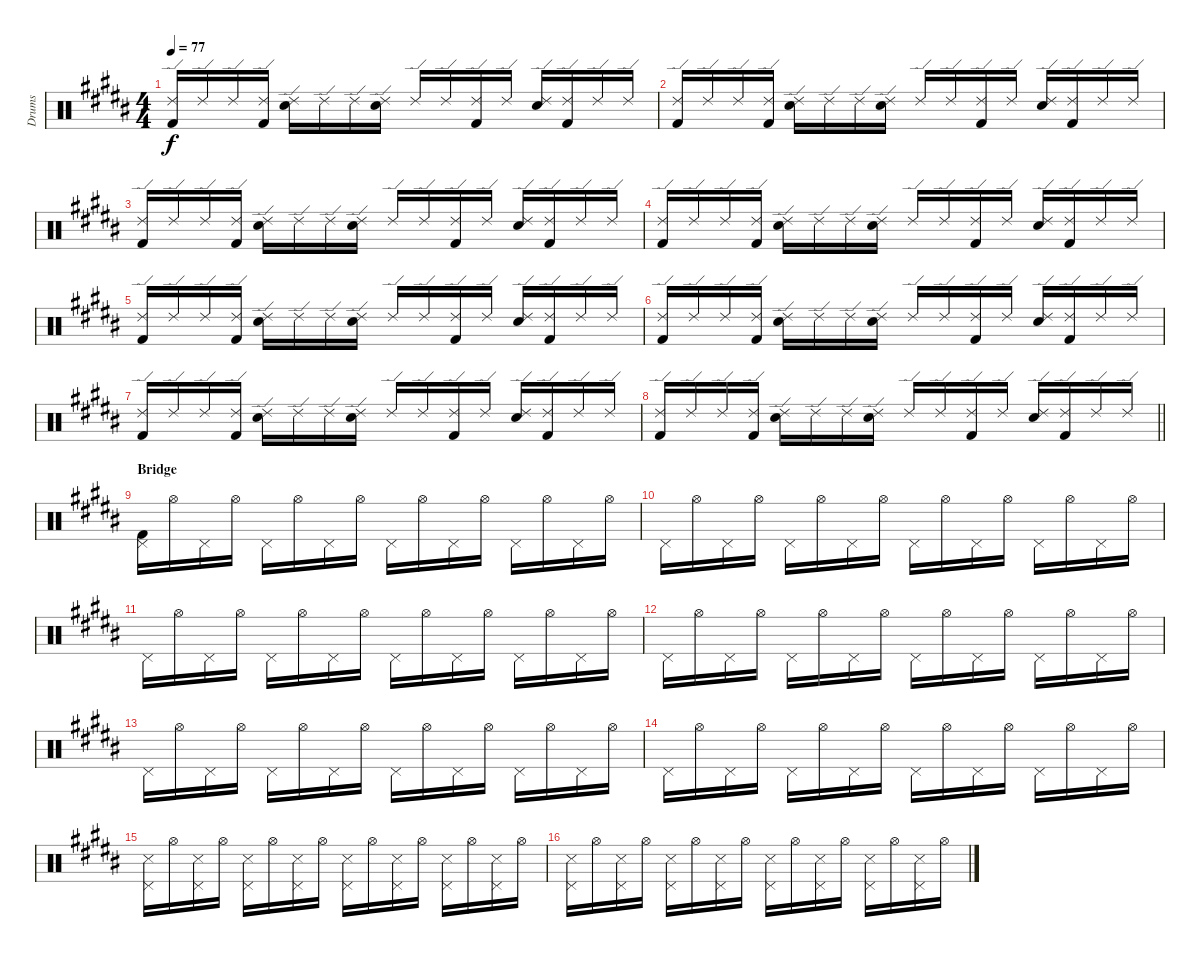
\track ("Drums" "Drums") {instrument percussion}
\staff {score}
\articulation defaults
\ts (4 4)
\tempo 77
\clef neutral
\ks g#minor
("Kick (hit) 2" "Ride (edge) 2").16{dy f} "Ride (edge) 2".16 "Ride (edge) 2".16 ("Kick (hit) 2" "Ride (edge) 2").16 ("Ride (edge) 2" "Snare (hit) 2").16 "Ride (edge) 2".16 "Ride (edge) 2".16 ("Ride (edge) 2" "Snare (hit) 2").16 "Ride (edge) 2".16 "Ride (edge) 2".16 ("Kick (hit) 2" "Ride (edge) 2").16 "Ride (edge) 2".16 ("Ride (edge) 2" "Snare (hit) 2").16 ("Kick (hit) 2" "Ride (edge) 2").16 "Ride (edge) 2".16 "Ride (edge) 2".16 |
("Kick (hit) 2" "Ride (edge) 2").16 "Ride (edge) 2".16 "Ride (edge) 2".16 ("Kick (hit) 2" "Ride (edge) 2").16 ("Ride (edge) 2" "Snare (hit) 2").16 "Ride (edge) 2".16 "Ride (edge) 2".16 ("Ride (edge) 2" "Snare (hit) 2").16 "Ride (edge) 2".16 "Ride (edge) 2".16 ("Kick (hit) 2" "Ride (edge) 2").16 "Ride (edge) 2".16 ("Ride (edge) 2" "Snare (hit) 2").16 ("Kick (hit) 2" "Ride (edge) 2").16 "Ride (edge) 2".16 "Ride (edge) 2".16 |
("Kick (hit) 2" "Ride (edge) 2").16 "Ride (edge) 2".16 "Ride (edge) 2".16 ("Kick (hit) 2" "Ride (edge) 2").16 ("Ride (edge) 2" "Snare (hit) 2").16 "Ride (edge) 2".16 "Ride (edge) 2".16 ("Ride (edge) 2" "Snare (hit) 2").16 "Ride (edge) 2".16 "Ride (edge) 2".16 ("Kick (hit) 2" "Ride (edge) 2").16 "Ride (edge) 2".16 ("Ride (edge) 2" "Snare (hit) 2").16 ("Kick (hit) 2" "Ride (edge) 2").16 "Ride (edge) 2".16 "Ride (edge) 2".16 |
("Kick (hit) 2" "Ride (edge) 2").16 "Ride (edge) 2".16 "Ride (edge) 2".16 ("Kick (hit) 2" "Ride (edge) 2").16 ("Ride (edge) 2" "Snare (hit) 2").16 "Ride (edge) 2".16 "Ride (edge) 2".16 ("Ride (edge) 2" "Snare (hit) 2").16 "Ride (edge) 2".16 "Ride (edge) 2".16 ("Kick (hit) 2" "Ride (edge) 2").16 "Ride (edge) 2".16 ("Ride (edge) 2" "Snare (hit) 2").16 ("Kick (hit) 2" "Ride (edge) 2").16 "Ride (edge) 2".16 "Ride (edge) 2".16 |
("Kick (hit) 2" "Ride (edge) 2").16 "Ride (edge) 2".16 "Ride (edge) 2".16 ("Kick (hit) 2" "Ride (edge) 2").16 ("Ride (edge) 2" "Snare (hit) 2").16 "Ride (edge) 2".16 "Ride (edge) 2".16 ("Ride (edge) 2" "Snare (hit) 2").16 "Ride (edge) 2".16 "Ride (edge) 2".16 ("Kick (hit) 2" "Ride (edge) 2").16 "Ride (edge) 2".16 ("Ride (edge) 2" "Snare (hit) 2").16 ("Kick (hit) 2" "Ride (edge) 2").16 "Ride (edge) 2".16 "Ride (edge) 2".16 |
("Kick (hit) 2" "Ride (edge) 2").16 "Ride (edge) 2".16 "Ride (edge) 2".16 ("Kick (hit) 2" "Ride (edge) 2").16 ("Ride (edge) 2" "Snare (hit) 2").16 "Ride (edge) 2".16 "Ride (edge) 2".16 ("Ride (edge) 2" "Snare (hit) 2").16 "Ride (edge) 2".16 "Ride (edge) 2".16 ("Kick (hit) 2" "Ride (edge) 2").16 "Ride (edge) 2".16 ("Ride (edge) 2" "Snare (hit) 2").16 ("Kick (hit) 2" "Ride (edge) 2").16 "Ride (edge) 2".16 "Ride (edge) 2".16 |
("Kick (hit) 2" "Ride (edge) 2").16 "Ride (edge) 2".16 "Ride (edge) 2".16 ("Kick (hit) 2" "Ride (edge) 2").16 ("Ride (edge) 2" "Snare (hit) 2").16 "Ride (edge) 2".16 "Ride (edge) 2".16 ("Ride (edge) 2" "Snare (hit) 2").16 "Ride (edge) 2".16 "Ride (edge) 2".16 ("Kick (hit) 2" "Ride (edge) 2").16 "Ride (edge) 2".16 ("Ride (edge) 2" "Snare (hit) 2").16 ("Kick (hit) 2" "Ride (edge) 2").16 "Ride (edge) 2".16 "Ride (edge) 2".16 |
\barLineRight lightlight
("Kick (hit) 2" "Ride (edge) 2").16 "Ride (edge) 2".16 "Ride (edge) 2".16 ("Kick (hit) 2" "Ride (edge) 2").16 ("Ride (edge) 2" "Snare (hit) 2").16 "Ride (edge) 2".16 "Ride (edge) 2".16 ("Ride (edge) 2" "Snare (hit) 2").16 "Ride (edge) 2".16 "Ride (edge) 2".16 ("Kick (hit) 2" "Ride (edge) 2").16 "Ride (edge) 2".16 ("Ride (edge) 2" "Snare (hit) 2").16 ("Kick (hit) 2" "Ride (edge) 2").16 "Ride (edge) 2".16 "Ride (edge) 2".16 |
\section ("" "Bridge")
("Kick (hit) 2" "Pedal Hi-Hat (hit)").16 "Hi-Hat (open)".16 "Pedal Hi-Hat (hit)".16 "Hi-Hat (open)".16 "Pedal Hi-Hat (hit)".16 "Hi-Hat (open)".16 "Pedal Hi-Hat (hit)".16 "Hi-Hat (open)".16 "Pedal Hi-Hat (hit)".16 "Hi-Hat (open)".16 "Pedal Hi-Hat (hit)".16 "Hi-Hat (open)".16 "Pedal Hi-Hat (hit)".16 "Hi-Hat (open)".16 "Pedal Hi-Hat (hit)".16 "Hi-Hat (open)".16 |
"Pedal Hi-Hat (hit)".16 "Hi-Hat (open)".16 "Pedal Hi-Hat (hit)".16 "Hi-Hat (open)".16 "Pedal Hi-Hat (hit)".16 "Hi-Hat (open)".16 "Pedal Hi-Hat (hit)".16 "Hi-Hat (open)".16 "Pedal Hi-Hat (hit)".16 "Hi-Hat (open)".16 "Pedal Hi-Hat (hit)".16 "Hi-Hat (open)".16 "Pedal Hi-Hat (hit)".16 "Hi-Hat (open)".16 "Pedal Hi-Hat (hit)".16 "Hi-Hat (open)".16 |
"Pedal Hi-Hat (hit)".16 "Hi-Hat (open)".16 "Pedal Hi-Hat (hit)".16 "Hi-Hat (open)".16 "Pedal Hi-Hat (hit)".16 "Hi-Hat (open)".16 "Pedal Hi-Hat (hit)".16 "Hi-Hat (open)".16 "Pedal Hi-Hat (hit)".16 "Hi-Hat (open)".16 "Pedal Hi-Hat (hit)".16 "Hi-Hat (open)".16 "Pedal Hi-Hat (hit)".16 "Hi-Hat (open)".16 "Pedal Hi-Hat (hit)".16 "Hi-Hat (open)".16 |
"Pedal Hi-Hat (hit)".16 "Hi-Hat (open)".16 "Pedal Hi-Hat (hit)".16 "Hi-Hat (open)".16 "Pedal Hi-Hat (hit)".16 "Hi-Hat (open)".16 "Pedal Hi-Hat (hit)".16 "Hi-Hat (open)".16 "Pedal Hi-Hat (hit)".16 "Hi-Hat (open)".16 "Pedal Hi-Hat (hit)".16 "Hi-Hat (open)".16 "Pedal Hi-Hat (hit)".16 "Hi-Hat (open)".16 "Pedal Hi-Hat (hit)".16 "Hi-Hat (open)".16 |
"Pedal Hi-Hat (hit)".16 "Hi-Hat (open)".16 "Pedal Hi-Hat (hit)".16 "Hi-Hat (open)".16 "Pedal Hi-Hat (hit)".16 "Hi-Hat (open)".16 "Pedal Hi-Hat (hit)".16 "Hi-Hat (open)".16 "Pedal Hi-Hat (hit)".16 "Hi-Hat (open)".16 "Pedal Hi-Hat (hit)".16 "Hi-Hat (open)".16 "Pedal Hi-Hat (hit)".16 "Hi-Hat (open)".16 "Pedal Hi-Hat (hit)".16 "Hi-Hat (open)".16 |
"Pedal Hi-Hat (hit)".16 "Hi-Hat (open)".16 "Pedal Hi-Hat (hit)".16 "Hi-Hat (open)".16 "Pedal Hi-Hat (hit)".16 "Hi-Hat (open)".16 "Pedal Hi-Hat (hit)".16 "Hi-Hat (open)".16 "Pedal Hi-Hat (hit)".16 "Hi-Hat (open)".16 "Pedal Hi-Hat (hit)".16 "Hi-Hat (open)".16 "Pedal Hi-Hat (hit)".16 "Hi-Hat (open)".16 "Pedal Hi-Hat (hit)".16 "Hi-Hat (open)".16 |
("Pedal Hi-Hat (hit)" "Snare (side stick) 3").16 "Hi-Hat (open)".16 ("Pedal Hi-Hat (hit)" "Snare (side stick) 3").16 "Hi-Hat (open)".16 ("Pedal Hi-Hat (hit)" "Snare (side stick) 3").16 "Hi-Hat (open)".16 ("Pedal Hi-Hat (hit)" "Snare (side stick) 3").16 "Hi-Hat (open)".16 ("Pedal Hi-Hat (hit)" "Snare (side stick) 3").16 "Hi-Hat (open)".16 ("Pedal Hi-Hat (hit)" "Snare (side stick) 3").16 "Hi-Hat (open)".16 ("Pedal Hi-Hat (hit)" "Snare (side stick) 3").16 "Hi-Hat (open)".16 ("Pedal Hi-Hat (hit)" "Snare (side stick) 3").16 "Hi-Hat (open)".16 |
("Pedal Hi-Hat (hit)" "Snare (side stick) 3").16 "Hi-Hat (open)".16 ("Pedal Hi-Hat (hit)" "Snare (side stick) 3").16 "Hi-Hat (open)".16 ("Pedal Hi-Hat (hit)" "Snare (side stick) 3").16 "Hi-Hat (open)".16 ("Pedal Hi-Hat (hit)" "Snare (side stick) 3").16 "Hi-Hat (open)".16 ("Pedal Hi-Hat (hit)" "Snare (side stick) 3").16 "Hi-Hat (open)".16 ("Pedal Hi-Hat (hit)" "Snare (side stick) 3").16 "Hi-Hat (open)".16 ("Pedal Hi-Hat (hit)" "Snare (side stick) 3").16 "Hi-Hat (open)".16 ("Pedal Hi-Hat (hit)" "Snare (side stick) 3").16 "Hi-Hat (open)".16
